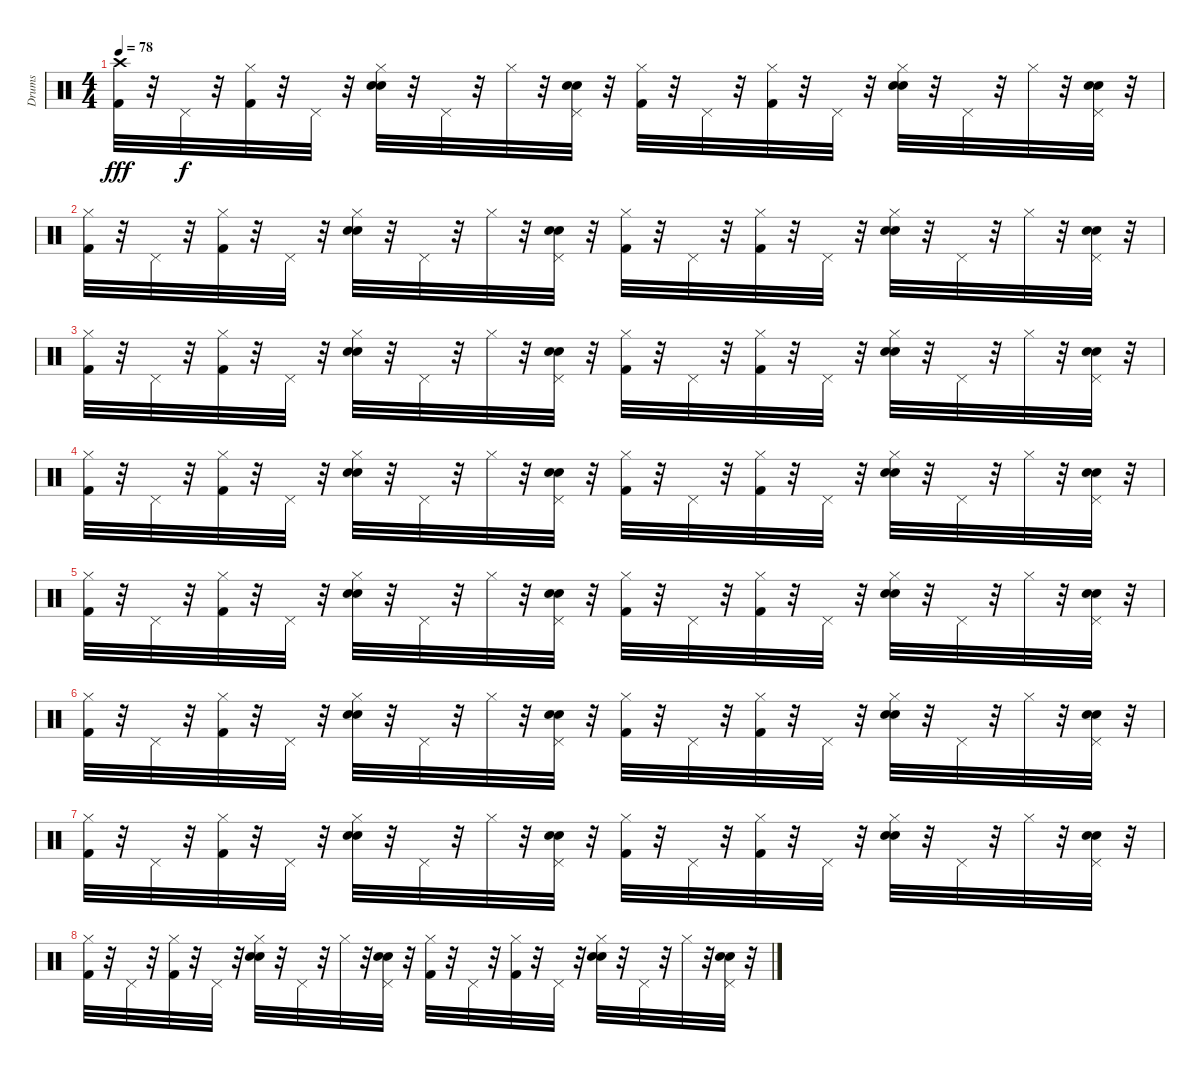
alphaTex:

\track ("Drums" "Drums") {instrument percussion}
\staff {score}
\articulation defaults
\ts (4 4)
\tempo 78
\clef neutral
\ks c
("Kick (hit) 2" "Crash high (hit)").32{dy fff} r.32 "Pedal Hi-Hat (hit)".32{dy f} r.32 ("Kick (hit) 2" "Hi-Hat (closed)").32 r.32 "Pedal Hi-Hat (hit)".32 r.32 ("Snare (hit) 2" "Electric Snare (hit)" "Hi-Hat (closed)").32 r.32 "Pedal Hi-Hat (hit)".32 r.32 "Hi-Hat (closed)".32 r.32 ("Snare (hit) 2" "Electric Snare (hit)" "Pedal Hi-Hat (hit)").32 r.32 ("Kick (hit) 2" "Hi-Hat (closed)").32 r.32 "Pedal Hi-Hat (hit)".32 r.32 ("Kick (hit) 2" "Hi-Hat (closed)").32 r.32 "Pedal Hi-Hat (hit)".32 r.32 ("Electric Snare (hit)" "Snare (hit) 2" "Hi-Hat (closed)").32 r.32 "Pedal Hi-Hat (hit)".32 r.32 "Hi-Hat (closed)".32 r.32 ("Pedal Hi-Hat (hit)" "Snare (hit) 2" "Electric Snare (hit)").32 r.32 |
("Hi-Hat (closed)" "Kick (hit) 2").32 r.32 "Pedal Hi-Hat (hit)".32 r.32 ("Kick (hit) 2" "Hi-Hat (closed)").32 r.32 "Pedal Hi-Hat (hit)".32 r.32 ("Snare (hit) 2" "Electric Snare (hit)" "Hi-Hat (closed)").32 r.32 "Pedal Hi-Hat (hit)".32 r.32 "Hi-Hat (closed)".32 r.32 ("Snare (hit) 2" "Electric Snare (hit)" "Pedal Hi-Hat (hit)").32 r.32 ("Kick (hit) 2" "Hi-Hat (closed)").32 r.32 "Pedal Hi-Hat (hit)".32 r.32 ("Kick (hit) 2" "Hi-Hat (closed)").32 r.32 "Pedal Hi-Hat (hit)".32 r.32 ("Electric Snare (hit)" "Snare (hit) 2" "Hi-Hat (closed)").32 r.32 "Pedal Hi-Hat (hit)".32 r.32 "Hi-Hat (closed)".32 r.32 ("Pedal Hi-Hat (hit)" "Snare (hit) 2" "Electric Snare (hit)").32 r.32 |
("Hi-Hat (closed)" "Kick (hit) 2").32 r.32 "Pedal Hi-Hat (hit)".32 r.32 ("Kick (hit) 2" "Hi-Hat (closed)").32 r.32 "Pedal Hi-Hat (hit)".32 r.32 ("Snare (hit) 2" "Electric Snare (hit)" "Hi-Hat (closed)").32 r.32 "Pedal Hi-Hat (hit)".32 r.32 "Hi-Hat (closed)".32 r.32 ("Snare (hit) 2" "Electric Snare (hit)" "Pedal Hi-Hat (hit)").32 r.32 ("Kick (hit) 2" "Hi-Hat (closed)").32 r.32 "Pedal Hi-Hat (hit)".32 r.32 ("Kick (hit) 2" "Hi-Hat (closed)").32 r.32 "Pedal Hi-Hat (hit)".32 r.32 ("Electric Snare (hit)" "Snare (hit) 2" "Hi-Hat (closed)").32 r.32 "Pedal Hi-Hat (hit)".32 r.32 "Hi-Hat (closed)".32 r.32 ("Pedal Hi-Hat (hit)" "Snare (hit) 2" "Electric Snare (hit)").32 r.32 |
("Hi-Hat (closed)" "Kick (hit) 2").32 r.32 "Pedal Hi-Hat (hit)".32 r.32 ("Kick (hit) 2" "Hi-Hat (closed)").32 r.32 "Pedal Hi-Hat (hit)".32 r.32 ("Snare (hit) 2" "Electric Snare (hit)" "Hi-Hat (closed)").32 r.32 "Pedal Hi-Hat (hit)".32 r.32 "Hi-Hat (closed)".32 r.32 ("Snare (hit) 2" "Electric Snare (hit)" "Pedal Hi-Hat (hit)").32 r.32 ("Kick (hit) 2" "Hi-Hat (closed)").32 r.32 "Pedal Hi-Hat (hit)".32 r.32 ("Kick (hit) 2" "Hi-Hat (closed)").32 r.32 "Pedal Hi-Hat (hit)".32 r.32 ("Electric Snare (hit)" "Snare (hit) 2" "Hi-Hat (closed)").32 r.32 "Pedal Hi-Hat (hit)".32 r.32 "Hi-Hat (closed)".32 r.32 ("Pedal Hi-Hat (hit)" "Snare (hit) 2" "Electric Snare (hit)").32 r.32 |
("Hi-Hat (closed)" "Kick (hit) 2").32 r.32 "Pedal Hi-Hat (hit)".32 r.32 ("Kick (hit) 2" "Hi-Hat (closed)").32 r.32 "Pedal Hi-Hat (hit)".32 r.32 ("Snare (hit) 2" "Electric Snare (hit)" "Hi-Hat (closed)").32 r.32 "Pedal Hi-Hat (hit)".32 r.32 "Hi-Hat (closed)".32 r.32 ("Snare (hit) 2" "Electric Snare (hit)" "Pedal Hi-Hat (hit)").32 r.32 ("Kick (hit) 2" "Hi-Hat (closed)").32 r.32 "Pedal Hi-Hat (hit)".32 r.32 ("Kick (hit) 2" "Hi-Hat (closed)").32 r.32 "Pedal Hi-Hat (hit)".32 r.32 ("Electric Snare (hit)" "Snare (hit) 2" "Hi-Hat (closed)").32 r.32 "Pedal Hi-Hat (hit)".32 r.32 "Hi-Hat (closed)".32 r.32 ("Pedal Hi-Hat (hit)" "Snare (hit) 2" "Electric Snare (hit)").32 r.32 |
("Hi-Hat (closed)" "Kick (hit) 2").32 r.32 "Pedal Hi-Hat (hit)".32 r.32 ("Kick (hit) 2" "Hi-Hat (closed)").32 r.32 "Pedal Hi-Hat (hit)".32 r.32 ("Snare (hit) 2" "Electric Snare (hit)" "Hi-Hat (closed)").32 r.32 "Pedal Hi-Hat (hit)".32 r.32 "Hi-Hat (closed)".32 r.32 ("Snare (hit) 2" "Electric Snare (hit)" "Pedal Hi-Hat (hit)").32 r.32 ("Kick (hit) 2" "Hi-Hat (closed)").32 r.32 "Pedal Hi-Hat (hit)".32 r.32 ("Kick (hit) 2" "Hi-Hat (closed)").32 r.32 "Pedal Hi-Hat (hit)".32 r.32 ("Electric Snare (hit)" "Snare (hit) 2" "Hi-Hat (closed)").32 r.32 "Pedal Hi-Hat (hit)".32 r.32 "Hi-Hat (closed)".32 r.32 ("Pedal Hi-Hat (hit)" "Snare (hit) 2" "Electric Snare (hit)").32 r.32 |
("Hi-Hat (closed)" "Kick (hit) 2").32 r.32 "Pedal Hi-Hat (hit)".32 r.32 ("Kick (hit) 2" "Hi-Hat (closed)").32 r.32 "Pedal Hi-Hat (hit)".32 r.32 ("Snare (hit) 2" "Electric Snare (hit)" "Hi-Hat (closed)").32 r.32 "Pedal Hi-Hat (hit)".32 r.32 "Hi-Hat (closed)".32 r.32 ("Snare (hit) 2" "Electric Snare (hit)" "Pedal Hi-Hat (hit)").32 r.32 ("Kick (hit) 2" "Hi-Hat (closed)").32 r.32 "Pedal Hi-Hat (hit)".32 r.32 ("Kick (hit) 2" "Hi-Hat (closed)").32 r.32 "Pedal Hi-Hat (hit)".32 r.32 ("Electric Snare (hit)" "Snare (hit) 2" "Hi-Hat (closed)").32 r.32 "Pedal Hi-Hat (hit)".32 r.32 "Hi-Hat (closed)".32 r.32 ("Pedal Hi-Hat (hit)" "Snare (hit) 2" "Electric Snare (hit)").32 r.32 |
("Hi-Hat (closed)" "Kick (hit) 2").32 r.32 "Pedal Hi-Hat (hit)".32 r.32 ("Kick (hit) 2" "Hi-Hat (closed)").32 r.32 "Pedal Hi-Hat (hit)".32 r.32 ("Snare (hit) 2" "Electric Snare (hit)" "Hi-Hat (closed)").32 r.32 "Pedal Hi-Hat (hit)".32 r.32 "Hi-Hat (closed)".32 r.32 ("Snare (hit) 2" "Electric Snare (hit)" "Pedal Hi-Hat (hit)").32 r.32 ("Kick (hit) 2" "Hi-Hat (closed)").32 r.32 "Pedal Hi-Hat (hit)".32 r.32 ("Kick (hit) 2" "Hi-Hat (closed)").32 r.32 "Pedal Hi-Hat (hit)".32 r.32 ("Electric Snare (hit)" "Snare (hit) 2" "Hi-Hat (closed)").32 r.32 "Pedal Hi-Hat (hit)".32 r.32 "Hi-Hat (closed)".32 r.32 ("Pedal Hi-Hat (hit)" "Snare (hit) 2" "Electric Snare (hit)").32 r.32
